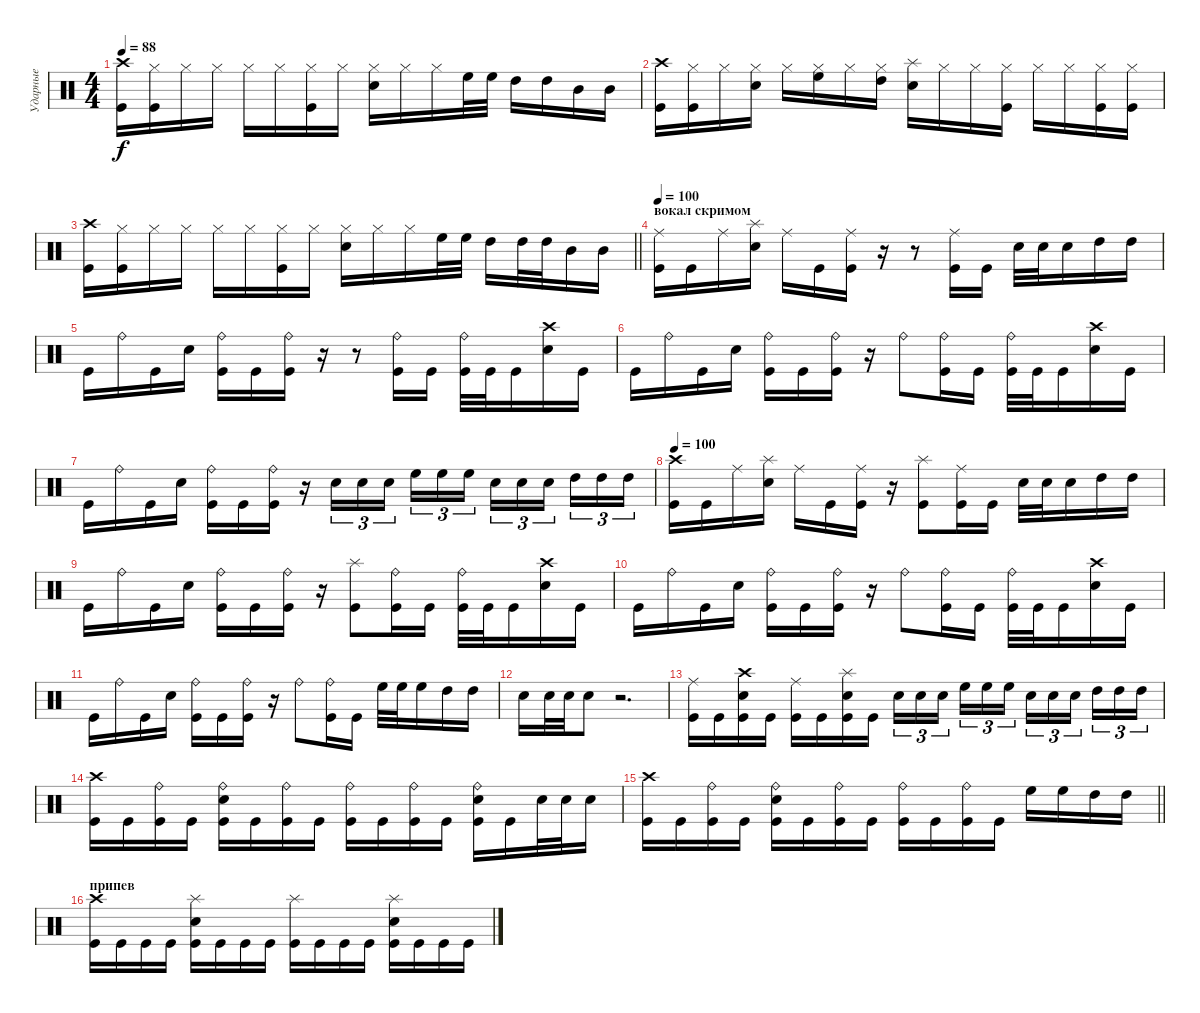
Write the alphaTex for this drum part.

\track ("Ударные" "Ударные") {instrument percussion}
\staff {score}
\articulation defaults
\ts (4 4)
\tempo 88
\clef neutral
\ks c
("Kick (hit)" "Crash high (hit)").16{dy f} ("Kick (hit)" "Hi-Hat (closed)").16 "Hi-Hat (closed)".16 "Hi-Hat (closed)".16 "Hi-Hat (closed)".16 "Hi-Hat (closed)".16 ("Kick (hit)" "Hi-Hat (closed)").16 "Hi-Hat (closed)".16 ("Snare (hit) 2" "Hi-Hat (closed)").16 "Hi-Hat (closed)".16 "Hi-Hat (closed)".16 "High Floor Tom (hit)".32 "High Floor Tom (hit)".32 "High Tom (hit)".16 "High Tom (hit)".16 "Mid Tom (hit)".16 "Mid Tom (hit)".16 |
("Kick (hit)" "Crash high (hit)").16 ("Kick (hit)" "Hi-Hat (closed)").16 "Hi-Hat (closed)".16 ("Hi-Hat (closed)" "Snare (hit) 2").16 "Hi-Hat (closed)".16 ("Hi-Hat (closed)" "High Floor Tom (hit)").16 "Hi-Hat (closed)".16 ("Hi-Hat (closed)" "High Tom (hit)").16 ("Snare (hit) 2" "Splash (hit)").16 "Hi-Hat (closed)".16 "Hi-Hat (closed)".16 ("Kick (hit)" "Hi-Hat (closed)").16 "Hi-Hat (closed)".16 "Hi-Hat (closed)".16 ("Kick (hit)" "Hi-Hat (closed)").16 ("Kick (hit)" "Hi-Hat (closed)").16 |
\barLineRight lightlight
("Kick (hit)" "Crash high (hit)").16 ("Kick (hit)" "Hi-Hat (closed)").16 "Hi-Hat (closed)".16 "Hi-Hat (closed)".16 "Hi-Hat (closed)".16 "Hi-Hat (closed)".16 ("Kick (hit)" "Hi-Hat (closed)").16 "Hi-Hat (closed)".16 ("Snare (hit) 2" "Hi-Hat (closed)").16 "Hi-Hat (closed)".16 "Hi-Hat (closed)".16 "High Floor Tom (hit)".32 "High Floor Tom (hit)".32 "High Tom (hit)".16 "High Tom (hit)".32 "High Tom (hit)".32 "Mid Tom (hit)".16 "Mid Tom (hit)".16 |
\section ("" "вокал скримом")
\tempo 100
("Kick (hit)" "Ride (middle)").16 "Kick (hit)".16 "Ride (middle)".16 ("Snare (hit) 2" "Splash (hit)").16 "Ride (middle)".16 "Kick (hit)".16 ("Kick (hit)" "Ride (middle)").16 r.16 r.8 ("Kick (hit)" "Ride (middle)").16 "Kick (hit)".16 "Snare (hit) 2".32 "Snare (hit) 2".32 "Snare (hit) 2".16 "High Tom (hit)".16 "High Tom (hit)".16 |
"Kick (hit)".16 "Ride (bell)".16 "Kick (hit)".16 "Snare (hit) 2".16 ("Ride (bell)" "Kick (hit)").16 "Kick (hit)".16 ("Kick (hit)" "Ride (bell)").16 r.16 r.8 ("Kick (hit)" "Ride (bell)").16 "Kick (hit)".16 ("Kick (hit)" "Ride (bell)").32 "Kick (hit)".32 "Kick (hit)".16 ("Crash high (hit)" "Snare (hit) 2").16 "Kick (hit)".16 |
"Kick (hit)".16 "Ride (bell)".16 "Kick (hit)".16 "Snare (hit) 2".16 ("Ride (bell)" "Kick (hit)").16 "Kick (hit)".16 ("Kick (hit)" "Ride (bell)").16 r.16 "Ride (bell)".8 ("Kick (hit)" "Ride (bell)").16 "Kick (hit)".16 ("Kick (hit)" "Ride (bell)").32 "Kick (hit)".32 "Kick (hit)".16 ("Crash high (hit)" "Snare (hit) 2").16 "Kick (hit)".16 |
"Kick (hit)".16 "Ride (bell)".16 "Kick (hit)".16 "Snare (hit) 2".16 ("Ride (bell)" "Kick (hit)").16 "Kick (hit)".16 ("Kick (hit)" "Ride (bell)").16 r.16 "Snare (hit) 2".16{tu (3 2)} "Snare (hit) 2".16{tu (3 2)} "Snare (hit) 2".16{tu (3 2) beam splitsecondary} "High Floor Tom (hit)".16{tu (3 2)} "High Floor Tom (hit)".16{tu (3 2)} "High Floor Tom (hit)".16{tu (3 2)} "Snare (hit) 2".16{tu (3 2)} "Snare (hit) 2".16{tu (3 2)} "Snare (hit) 2".16{tu (3 2) beam splitsecondary} "High Tom (hit)".16{tu (3 2)} "High Tom (hit)".16{tu (3 2)} "High Tom (hit)".16{tu (3 2)} |
\tempo 100
("Kick (hit)" "Crash high (hit)").16 "Kick (hit)".16 "Ride (middle)".16 ("Snare (hit) 2" "Splash (hit)").16 "Ride (middle)".16 "Kick (hit)".16 ("Kick (hit)" "Ride (middle)").16 r.16 ("Splash (hit)" "Kick (hit)").8 ("Kick (hit)" "Ride (middle)").16 "Kick (hit)".16 "Snare (hit) 2".32 "Snare (hit) 2".32 "Snare (hit) 2".16 "High Tom (hit)".16 "High Tom (hit)".16 |
"Kick (hit)".16 "Ride (bell)".16 "Kick (hit)".16 "Snare (hit) 2".16 ("Ride (bell)" "Kick (hit)").16 "Kick (hit)".16 ("Kick (hit)" "Ride (bell)").16 r.16 ("Kick (hit)" "Splash (hit)").8 ("Kick (hit)" "Ride (bell)").16 "Kick (hit)".16 ("Kick (hit)" "Ride (bell)").32 "Kick (hit)".32 "Kick (hit)".16 ("Crash high (hit)" "Snare (hit) 2").16 "Kick (hit)".16 |
"Kick (hit)".16 "Ride (bell)".16 "Kick (hit)".16 "Snare (hit) 2".16 ("Ride (bell)" "Kick (hit)").16 "Kick (hit)".16 ("Kick (hit)" "Ride (bell)").16 r.16 "Ride (bell)".8 ("Kick (hit)" "Ride (bell)").16 "Kick (hit)".16 ("Kick (hit)" "Ride (bell)").32 "Kick (hit)".32 "Kick (hit)".16 ("Crash high (hit)" "Snare (hit) 2").16 "Kick (hit)".16 |
"Kick (hit)".16 "Ride (bell)".16 "Kick (hit)".16 "Snare (hit) 2".16 ("Ride (bell)" "Kick (hit)").16 "Kick (hit)".16 ("Kick (hit)" "Ride (bell)").16 r.16 "Ride (bell)".8 ("Kick (hit)" "Ride (bell)").16 "Kick (hit)".16 "High Floor Tom (hit)".32 "High Floor Tom (hit)".32 "High Floor Tom (hit)".16 "High Tom (hit)".16 "High Tom (hit)".16 |
"Snare (hit) 2".16 "Snare (hit) 2".32 "Snare (hit) 2".32 "Snare (hit) 2".8 r.2{d} |
("Kick (hit)" "Ride (middle)").16 "Kick (hit)".16 ("Snare (hit) 2" "Kick (hit)" "Crash high (hit)").16 "Kick (hit)".16 ("Kick (hit)" "Ride (middle)").16 "Kick (hit)".16 ("Snare (hit) 2" "Kick (hit)" "Splash (hit)").16 "Kick (hit)".16 "Snare (hit) 2".16{tu (3 2)} "Snare (hit) 2".16{tu (3 2)} "Snare (hit) 2".16{tu (3 2) beam splitsecondary} "High Floor Tom (hit)".16{tu (3 2)} "High Floor Tom (hit)".16{tu (3 2)} "High Floor Tom (hit)".16{tu (3 2)} "Snare (hit) 2".16{tu (3 2)} "Snare (hit) 2".16{tu (3 2)} "Snare (hit) 2".16{tu (3 2) beam splitsecondary} "High Tom (hit)".16{tu (3 2)} "High Tom (hit)".16{tu (3 2)} "High Tom (hit)".16{tu (3 2)} |
("Crash high (hit)" "Kick (hit)").16 "Kick (hit)".16 ("Ride (bell)" "Kick (hit)").16 "Kick (hit)".16 ("Ride (bell)" "Snare (hit) 2" "Kick (hit)").16 "Kick (hit)".16 ("Ride (bell)" "Kick (hit)").16 "Kick (hit)".16 ("Ride (bell)" "Kick (hit)").16 "Kick (hit)".16 ("Ride (bell)" "Kick (hit)").16 "Kick (hit)".16 ("Ride (bell)" "Snare (hit) 2" "Kick (hit)").16 "Kick (hit)".16 "Snare (hit) 2".32 "Snare (hit) 2".32 "Snare (hit) 2".16 |
\barLineRight lightlight
("Crash high (hit)" "Kick (hit)").16 "Kick (hit)".16 ("Ride (bell)" "Kick (hit)").16 "Kick (hit)".16 ("Ride (bell)" "Snare (hit) 2" "Kick (hit)").16 "Kick (hit)".16 ("Ride (bell)" "Kick (hit)").16 "Kick (hit)".16 ("Ride (bell)" "Kick (hit)").16 "Kick (hit)".16 ("Ride (bell)" "Kick (hit)").16 "Kick (hit)".16 "High Floor Tom (hit)".16 "High Floor Tom (hit)".16 "High Tom (hit)".16 "High Tom (hit)".16 |
\section ("" "припев")
("Crash high (hit)" "Kick (hit)").16 "Kick (hit)".16 "Kick (hit)".16 "Kick (hit)".16 ("Snare (hit) 2" "Kick (hit)" "Splash (hit)").16 "Kick (hit)".16 "Kick (hit)".16 "Kick (hit)".16 ("Kick (hit)" "Splash (hit)").16 "Kick (hit)".16 "Kick (hit)".16 "Kick (hit)".16 ("Snare (hit) 2" "Kick (hit)" "Splash (hit)").16 "Kick (hit)".16 "Kick (hit)".16 "Kick (hit)".16
